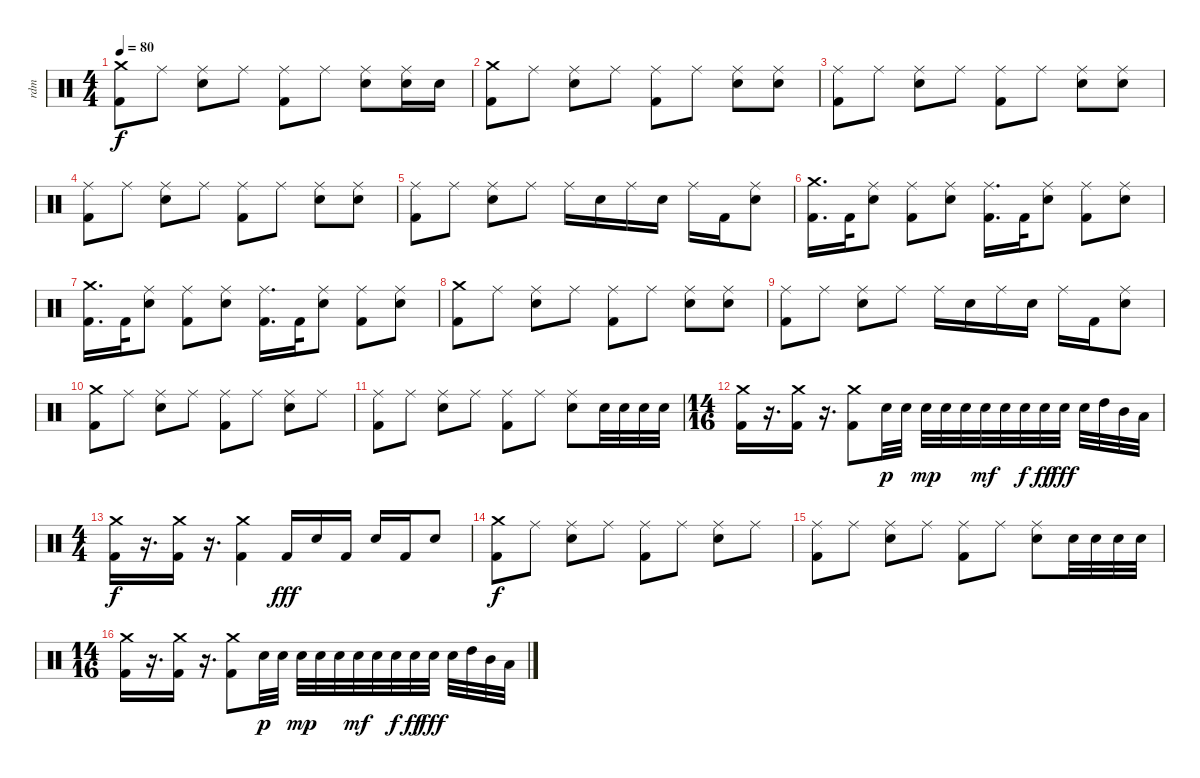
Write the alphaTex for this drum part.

\track ("rdm" "rdm") {instrument percussion}
\staff {score}
\articulation defaults
\ts (4 4)
\tempo 80
\clef neutral
\ks c
("Crash medium (hit)" "Kick (hit) 2").8{dy f} "Ride (middle)".8 ("Ride (middle)" "Snare (hit) 2").8 "Ride (middle)".8 ("Ride (middle)" "Kick (hit) 2").8 "Ride (middle)".8 ("Ride (middle)" "Snare (hit) 2").8 ("Ride (middle)" "Snare (hit) 2").16 "Snare (hit) 2".16 |
("Crash medium (hit)" "Kick (hit) 2").8 "Ride (middle)".8 ("Ride (middle)" "Snare (hit) 2").8 "Ride (middle)".8 ("Ride (middle)" "Kick (hit) 2").8 "Ride (middle)".8 ("Ride (middle)" "Snare (hit) 2").8 ("Ride (middle)" "Snare (hit) 2").8 |
("Ride (middle)" "Kick (hit) 2").8 "Ride (middle)".8 ("Ride (middle)" "Snare (hit) 2").8 "Ride (middle)".8 ("Ride (middle)" "Kick (hit) 2").8 "Ride (middle)".8 ("Ride (middle)" "Snare (hit) 2").8 ("Ride (middle)" "Snare (hit) 2").8 |
("Ride (middle)" "Kick (hit) 2").8 "Ride (middle)".8 ("Ride (middle)" "Snare (hit) 2").8 "Ride (middle)".8 ("Ride (middle)" "Kick (hit) 2").8 "Ride (middle)".8 ("Ride (middle)" "Snare (hit) 2").8 ("Ride (middle)" "Snare (hit) 2").8 |
("Ride (middle)" "Kick (hit) 2").8 "Ride (middle)".8 ("Ride (middle)" "Snare (hit) 2").8 "Ride (middle)".8 "Ride (middle)".16 "Snare (hit) 2".16 "Ride (middle)".16 "Snare (hit) 2".16 "Ride (middle)".16 "Kick (hit) 2".16 ("Ride (middle)" "Snare (hit) 2").8 |
("Crash medium (hit)" "Kick (hit) 2").16{d} "Kick (hit) 2".32 ("Ride (middle)" "Snare (hit) 2").8 ("Ride (middle)" "Kick (hit) 2").8 ("Ride (middle)" "Snare (hit) 2").8 ("Ride (middle)" "Kick (hit) 2").16{d} "Kick (hit) 2".32 ("Ride (middle)" "Snare (hit) 2").8 ("Ride (middle)" "Kick (hit) 2").8 ("Ride (middle)" "Snare (hit) 2").8 |
("Crash medium (hit)" "Kick (hit) 2").16{d} "Kick (hit) 2".32 ("Ride (middle)" "Snare (hit) 2").8 ("Ride (middle)" "Kick (hit) 2").8 ("Ride (middle)" "Snare (hit) 2").8 ("Ride (middle)" "Kick (hit) 2").16{d} "Kick (hit) 2".32 ("Ride (middle)" "Snare (hit) 2").8 ("Ride (middle)" "Kick (hit) 2").8 ("Ride (middle)" "Snare (hit) 2").8 |
("Crash medium (hit)" "Kick (hit) 2").8 "Ride (middle)".8 ("Ride (middle)" "Snare (hit) 2").8 "Ride (middle)".8 ("Ride (middle)" "Kick (hit) 2").8 "Ride (middle)".8 ("Ride (middle)" "Snare (hit) 2").8 ("Ride (middle)" "Snare (hit) 2").8 |
("Ride (middle)" "Kick (hit) 2").8 "Ride (middle)".8 ("Ride (middle)" "Snare (hit) 2").8 "Ride (middle)".8 "Ride (middle)".16 "Snare (hit) 2".16 "Ride (middle)".16 "Snare (hit) 2".16 "Ride (middle)".16 "Kick (hit) 2".16 ("Ride (middle)" "Snare (hit) 2").8 |
("Crash medium (hit)" "Kick (hit) 2").8 "Ride (middle)".8 ("Ride (middle)" "Snare (hit) 2").8 "Ride (middle)".8 ("Ride (middle)" "Kick (hit) 2").8 "Ride (middle)".8 ("Ride (middle)" "Snare (hit) 2").8 "Ride (middle)".8 |
("Ride (middle)" "Kick (hit) 2").8 "Ride (middle)".8 ("Ride (middle)" "Snare (hit) 2").8 "Ride (middle)".8 ("Ride (middle)" "Kick (hit) 2").8 "Ride (middle)".8 ("Ride (middle)" "Snare (hit) 2").8 "Snare (hit) 2".32 "Snare (hit) 2".32 "Snare (hit) 2".32 "Snare (hit) 2".32 |
\ts (14 16)
("Crash medium (hit)" "Kick (hit) 2").16 r.16{d} ("Crash medium (hit)" "Kick (hit) 2").16 r.16{d} ("Crash medium (hit)" "Kick (hit) 2").8 "Snare (hit) 2".32{dy p} "Snare (hit) 2".32 "Snare (hit) 2".32{dy mp} "Snare (hit) 2".32 "Snare (hit) 2".32 "Snare (hit) 2".32{dy mf} "Snare (hit) 2".32 "Snare (hit) 2".32{dy f} "Snare (hit) 2".32{dy ff} "Snare (hit) 2".32{dy fff} "Snare (hit) 2".32 "High Tom (hit)".32 "Mid Tom (hit)".32 "Low Tom (hit)".32 |
\ts (4 4)
("Crash medium (hit)" "Kick (hit) 2").16{dy f} r.16{d} ("Crash medium (hit)" "Kick (hit) 2").16 r.16{d} ("Crash medium (hit)" "Kick (hit) 2").4 "Kick (hit) 2".16{dy fff} "Snare (hit) 2".16 "Kick (hit) 2".16 "Snare (hit) 2".16 "Kick (hit) 2".16 "Snare (hit) 2".8 |
("Crash medium (hit)" "Kick (hit) 2").8{dy f} "Ride (middle)".8 ("Ride (middle)" "Snare (hit) 2").8 "Ride (middle)".8 ("Ride (middle)" "Kick (hit) 2").8 "Ride (middle)".8 ("Ride (middle)" "Snare (hit) 2").8 "Ride (middle)".8 |
("Ride (middle)" "Kick (hit) 2").8 "Ride (middle)".8 ("Ride (middle)" "Snare (hit) 2").8 "Ride (middle)".8 ("Ride (middle)" "Kick (hit) 2").8 "Ride (middle)".8 ("Ride (middle)" "Snare (hit) 2").8 "Snare (hit) 2".32 "Snare (hit) 2".32 "Snare (hit) 2".32 "Snare (hit) 2".32 |
\ts (14 16)
("Crash medium (hit)" "Kick (hit) 2").16 r.16{d} ("Crash medium (hit)" "Kick (hit) 2").16 r.16{d} ("Crash medium (hit)" "Kick (hit) 2").8 "Snare (hit) 2".32{dy p} "Snare (hit) 2".32 "Snare (hit) 2".32{dy mp} "Snare (hit) 2".32 "Snare (hit) 2".32 "Snare (hit) 2".32{dy mf} "Snare (hit) 2".32 "Snare (hit) 2".32{dy f} "Snare (hit) 2".32{dy ff} "Snare (hit) 2".32{dy fff} "Snare (hit) 2".32 "High Tom (hit)".32 "Mid Tom (hit)".32 "Low Tom (hit)".32
